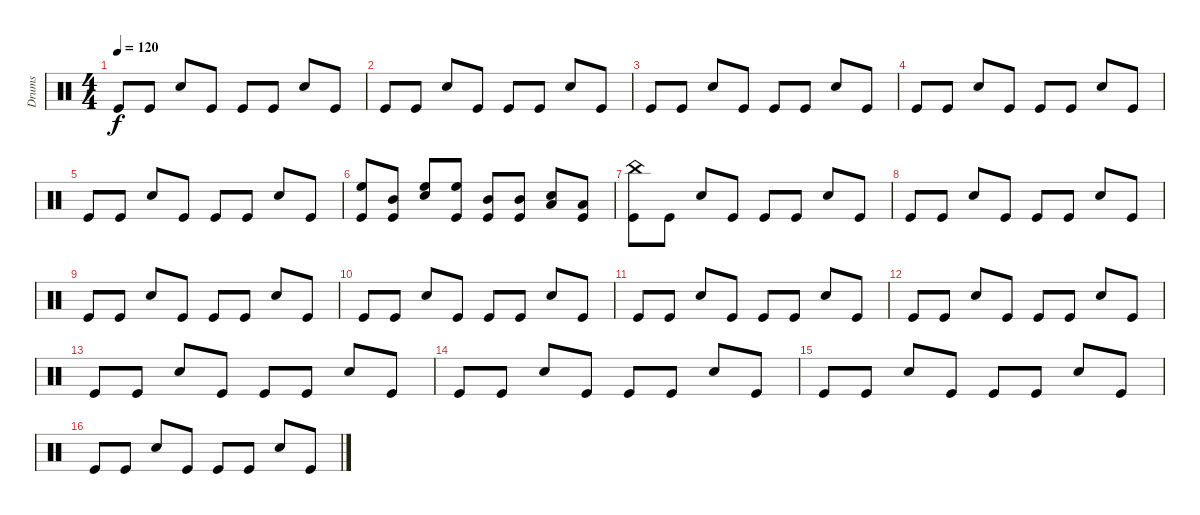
\track ("Drums" "Drums") {instrument percussion}
\staff {score}
\articulation defaults
\ts (4 4)
\tempo 120
\clef neutral
\ks c "Kick (hit)".8{dy f} "Kick (hit)".8 "Snare (hit) 2".8 "Kick (hit)".8 "Kick (hit)".8 "Kick (hit)".8 "Snare (hit) 2".8 "Kick (hit)".8
|
"Kick (hit)".8 "Kick (hit)".8 "Snare (hit) 2".8 "Kick (hit)".8 "Kick (hit)".8 "Kick (hit)".8 "Snare (hit) 2".8 "Kick (hit)".8 |
"Kick (hit)".8 "Kick (hit)".8 "Snare (hit) 2".8 "Kick (hit)".8 "Kick (hit)".8 "Kick (hit)".8 "Snare (hit) 2".8 "Kick (hit)".8 |
"Kick (hit)".8 "Kick (hit)".8 "Snare (hit) 2".8 "Kick (hit)".8 "Kick (hit)".8 "Kick (hit)".8 "Snare (hit) 2".8 "Kick (hit)".8 |
"Kick (hit)".8 "Kick (hit)".8 "Snare (hit) 2".8 "Kick (hit)".8 "Kick (hit)".8 "Kick (hit)".8 "Snare (hit) 2".8 "Kick (hit)".8 |
("High Floor Tom (hit)" "Kick (hit)").8 ("Mid Tom (hit)" "Kick (hit)").8 ("High Floor Tom (hit)" "Snare (hit) 2").8 ("High Floor Tom (hit)" "Kick (hit)").8 ("Mid Tom (hit)" "Kick (hit)").8 ("Mid Tom (hit)" "Kick (hit)").8 ("Low Floor Tom (hit)" "Snare (hit) 2").8 ("Low Floor Tom (hit)" "Kick (hit)").8 |
("China (hit)" "Kick (hit)").8 "Kick (hit)".8 "Snare (hit) 2".8 "Kick (hit)".8 "Kick (hit)".8 "Kick (hit)".8 "Snare (hit) 2".8 "Kick (hit)".8 |
"Kick (hit)".8 "Kick (hit)".8 "Snare (hit) 2".8 "Kick (hit)".8 "Kick (hit)".8 "Kick (hit)".8 "Snare (hit) 2".8 "Kick (hit)".8 |
"Kick (hit)".8 "Kick (hit)".8 "Snare (hit) 2".8 "Kick (hit)".8 "Kick (hit)".8 "Kick (hit)".8 "Snare (hit) 2".8 "Kick (hit)".8 |
"Kick (hit)".8 "Kick (hit)".8 "Snare (hit) 2".8 "Kick (hit)".8 "Kick (hit)".8 "Kick (hit)".8 "Snare (hit) 2".8 "Kick (hit)".8 |
"Kick (hit)".8 "Kick (hit)".8 "Snare (hit) 2".8 "Kick (hit)".8 "Kick (hit)".8 "Kick (hit)".8 "Snare (hit) 2".8 "Kick (hit)".8 |
"Kick (hit)".8 "Kick (hit)".8 "Snare (hit) 2".8 "Kick (hit)".8 "Kick (hit)".8 "Kick (hit)".8 "Snare (hit) 2".8 "Kick (hit)".8 |
"Kick (hit)".8 "Kick (hit)".8 "Snare (hit) 2".8 "Kick (hit)".8 "Kick (hit)".8 "Kick (hit)".8 "Snare (hit) 2".8 "Kick (hit)".8 |
"Kick (hit)".8 "Kick (hit)".8 "Snare (hit) 2".8 "Kick (hit)".8 "Kick (hit)".8 "Kick (hit)".8 "Snare (hit) 2".8 "Kick (hit)".8 |
"Kick (hit)".8 "Kick (hit)".8 "Snare (hit) 2".8 "Kick (hit)".8 "Kick (hit)".8 "Kick (hit)".8 "Snare (hit) 2".8 "Kick (hit)".8 |
"Kick (hit)".8 "Kick (hit)".8 "Snare (hit) 2".8 "Kick (hit)".8 "Kick (hit)".8 "Kick (hit)".8 "Snare (hit) 2".8 "Kick (hit)".8
